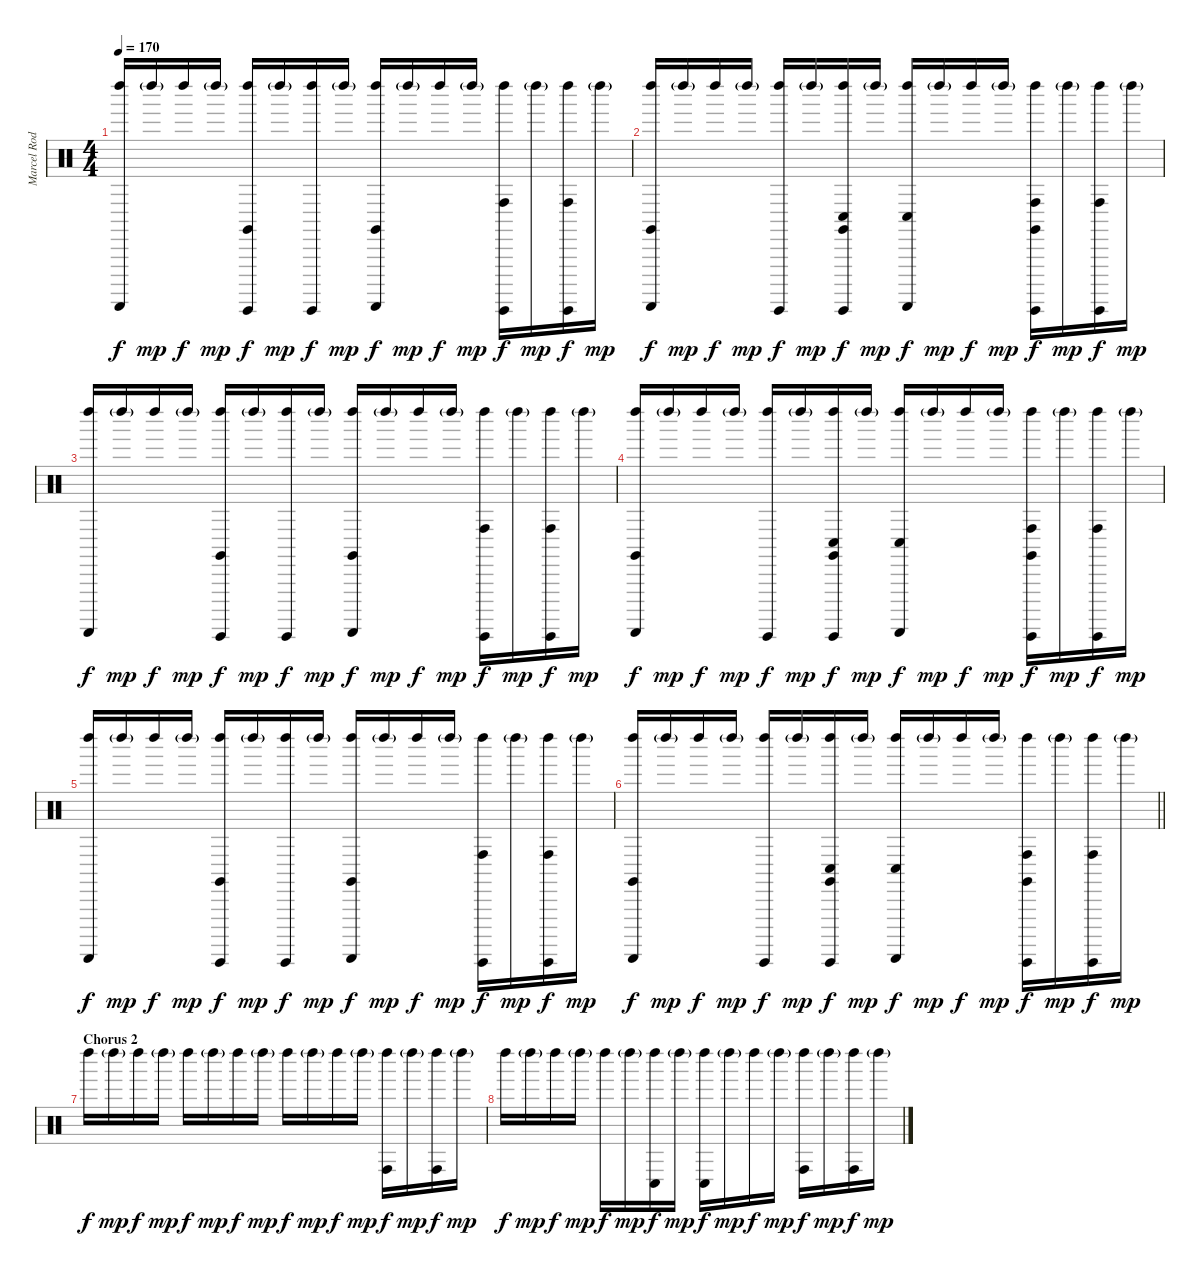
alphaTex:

\track ("Marcel Rodriguez-Lopez/Adrian Terrazas [" "Marcel Rod") {instrument percussion}
\staff {score}
\articulation defaults
\ts (4 4)
\tempo 170
\clef neutral
\ks c
("Guiro (scrap-return)" "Left Maraca (hit)").16{dy f} "Left Maraca (hit)"{g}.16{dy mp} "Left Maraca (hit)".16{dy f} "Left Maraca (hit)"{g}.16{dy mp} ("Guiro (hit)" "Left Maraca (hit)" "Claves (hit)").16{dy f} "Left Maraca (hit)"{g}.16{dy mp} ("Guiro (hit)" "Left Maraca (hit)").16{dy f} "Left Maraca (hit)"{g}.16{dy mp} ("Guiro (scrap-return)" "Left Maraca (hit)" "Claves (hit)").16{dy f} "Left Maraca (hit)"{g}.16{dy mp} "Left Maraca (hit)".16{dy f} "Left Maraca (hit)"{g}.16{dy mp} ("Guiro (hit)" "Left Maraca (hit)" "Conga high (hit)").16{dy f} "Left Maraca (hit)"{g}.16{dy mp} ("Guiro (hit)" "Left Maraca (hit)" "Conga high (hit)").16{dy f} "Left Maraca (hit)"{g}.16{dy mp} |
("Guiro (scrap-return)" "Left Maraca (hit)" "Claves (hit)").16{dy f} "Left Maraca (hit)"{g}.16{dy mp} "Left Maraca (hit)".16{dy f} "Left Maraca (hit)"{g}.16{dy mp} ("Guiro (hit)" "Left Maraca (hit)").16{dy f} "Left Maraca (hit)"{g}.16{dy mp} ("Guiro (hit)" "Left Maraca (hit)" "Claves (hit)" "Conga low (hit)").16{dy f} "Left Maraca (hit)"{g}.16{dy mp} ("Guiro (scrap-return)" "Left Maraca (hit)" "Conga low (hit)").16{dy f} "Left Maraca (hit)"{g}.16{dy mp} "Left Maraca (hit)".16{dy f} "Left Maraca (hit)"{g}.16{dy mp} ("Guiro (hit)" "Left Maraca (hit)" "Claves (hit)" "Conga high (hit)").16{dy f} "Left Maraca (hit)"{g}.16{dy mp} ("Guiro (hit)" "Left Maraca (hit)" "Conga high (hit)").16{dy f} "Left Maraca (hit)"{g}.16{dy mp} |
("Guiro (scrap-return)" "Left Maraca (hit)").16{dy f} "Left Maraca (hit)"{g}.16{dy mp} "Left Maraca (hit)".16{dy f} "Left Maraca (hit)"{g}.16{dy mp} ("Guiro (hit)" "Left Maraca (hit)" "Claves (hit)").16{dy f} "Left Maraca (hit)"{g}.16{dy mp} ("Guiro (hit)" "Left Maraca (hit)").16{dy f} "Left Maraca (hit)"{g}.16{dy mp} ("Guiro (scrap-return)" "Left Maraca (hit)" "Claves (hit)").16{dy f} "Left Maraca (hit)"{g}.16{dy mp} "Left Maraca (hit)".16{dy f} "Left Maraca (hit)"{g}.16{dy mp} ("Guiro (hit)" "Left Maraca (hit)" "Conga high (hit)").16{dy f} "Left Maraca (hit)"{g}.16{dy mp} ("Guiro (hit)" "Left Maraca (hit)" "Conga high (hit)").16{dy f} "Left Maraca (hit)"{g}.16{dy mp} |
("Guiro (scrap-return)" "Left Maraca (hit)" "Claves (hit)").16{dy f} "Left Maraca (hit)"{g}.16{dy mp} "Left Maraca (hit)".16{dy f} "Left Maraca (hit)"{g}.16{dy mp} ("Guiro (hit)" "Left Maraca (hit)").16{dy f} "Left Maraca (hit)"{g}.16{dy mp} ("Guiro (hit)" "Left Maraca (hit)" "Claves (hit)" "Conga low (hit)").16{dy f} "Left Maraca (hit)"{g}.16{dy mp} ("Guiro (scrap-return)" "Left Maraca (hit)" "Conga low (hit)").16{dy f} "Left Maraca (hit)"{g}.16{dy mp} "Left Maraca (hit)".16{dy f} "Left Maraca (hit)"{g}.16{dy mp} ("Guiro (hit)" "Left Maraca (hit)" "Claves (hit)" "Conga high (hit)").16{dy f} "Left Maraca (hit)"{g}.16{dy mp} ("Guiro (hit)" "Left Maraca (hit)" "Conga high (hit)").16{dy f} "Left Maraca (hit)"{g}.16{dy mp} |
("Guiro (scrap-return)" "Left Maraca (hit)").16{dy f} "Left Maraca (hit)"{g}.16{dy mp} "Left Maraca (hit)".16{dy f} "Left Maraca (hit)"{g}.16{dy mp} ("Guiro (hit)" "Left Maraca (hit)" "Claves (hit)").16{dy f} "Left Maraca (hit)"{g}.16{dy mp} ("Guiro (hit)" "Left Maraca (hit)").16{dy f} "Left Maraca (hit)"{g}.16{dy mp} ("Guiro (scrap-return)" "Left Maraca (hit)" "Claves (hit)").16{dy f} "Left Maraca (hit)"{g}.16{dy mp} "Left Maraca (hit)".16{dy f} "Left Maraca (hit)"{g}.16{dy mp} ("Guiro (hit)" "Left Maraca (hit)" "Conga high (hit)").16{dy f} "Left Maraca (hit)"{g}.16{dy mp} ("Guiro (hit)" "Left Maraca (hit)" "Conga high (hit)").16{dy f} "Left Maraca (hit)"{g}.16{dy mp} |
\barLineRight lightlight
("Guiro (scrap-return)" "Left Maraca (hit)" "Claves (hit)").16{dy f} "Left Maraca (hit)"{g}.16{dy mp} "Left Maraca (hit)".16{dy f} "Left Maraca (hit)"{g}.16{dy mp} ("Guiro (hit)" "Left Maraca (hit)").16{dy f} "Left Maraca (hit)"{g}.16{dy mp} ("Guiro (hit)" "Left Maraca (hit)" "Claves (hit)" "Conga low (hit)").16{dy f} "Left Maraca (hit)"{g}.16{dy mp} ("Guiro (scrap-return)" "Left Maraca (hit)" "Conga low (hit)").16{dy f} "Left Maraca (hit)"{g}.16{dy mp} "Left Maraca (hit)".16{dy f} "Left Maraca (hit)"{g}.16{dy mp} ("Guiro (hit)" "Left Maraca (hit)" "Claves (hit)" "Conga high (hit)").16{dy f} "Left Maraca (hit)"{g}.16{dy mp} ("Guiro (hit)" "Left Maraca (hit)" "Conga high (hit)").16{dy f} "Left Maraca (hit)"{g}.16{dy mp} |
\section ("" "Chorus 2")
"Left Maraca (hit)".16{dy f} "Left Maraca (hit)"{g}.16{dy mp} "Left Maraca (hit)".16{dy f} "Left Maraca (hit)"{g}.16{dy mp} "Left Maraca (hit)".16{dy f} "Left Maraca (hit)"{g}.16{dy mp} "Left Maraca (hit)".16{dy f} "Left Maraca (hit)"{g}.16{dy mp} "Left Maraca (hit)".16{dy f} "Left Maraca (hit)"{g}.16{dy mp} "Left Maraca (hit)".16{dy f} "Left Maraca (hit)"{g}.16{dy mp} ("Left Maraca (hit)" "Conga high (hit)").16{dy f} "Left Maraca (hit)"{g}.16{dy mp} ("Left Maraca (hit)" "Conga high (hit)").16{dy f} "Left Maraca (hit)"{g}.16{dy mp} |
"Left Maraca (hit)".16{dy f} "Left Maraca (hit)"{g}.16{dy mp} "Left Maraca (hit)".16{dy f} "Left Maraca (hit)"{g}.16{dy mp} "Left Maraca (hit)".16{dy f} "Left Maraca (hit)"{g}.16{dy mp} ("Left Maraca (hit)" "Conga low (hit)").16{dy f} "Left Maraca (hit)"{g}.16{dy mp} ("Left Maraca (hit)" "Conga low (hit)").16{dy f} "Left Maraca (hit)"{g}.16{dy mp} "Left Maraca (hit)".16{dy f} "Left Maraca (hit)"{g}.16{dy mp} ("Left Maraca (hit)" "Conga high (hit)").16{dy f} "Left Maraca (hit)"{g}.16{dy mp} ("Left Maraca (hit)" "Conga high (hit)").16{dy f} "Left Maraca (hit)"{g}.16{dy mp}
